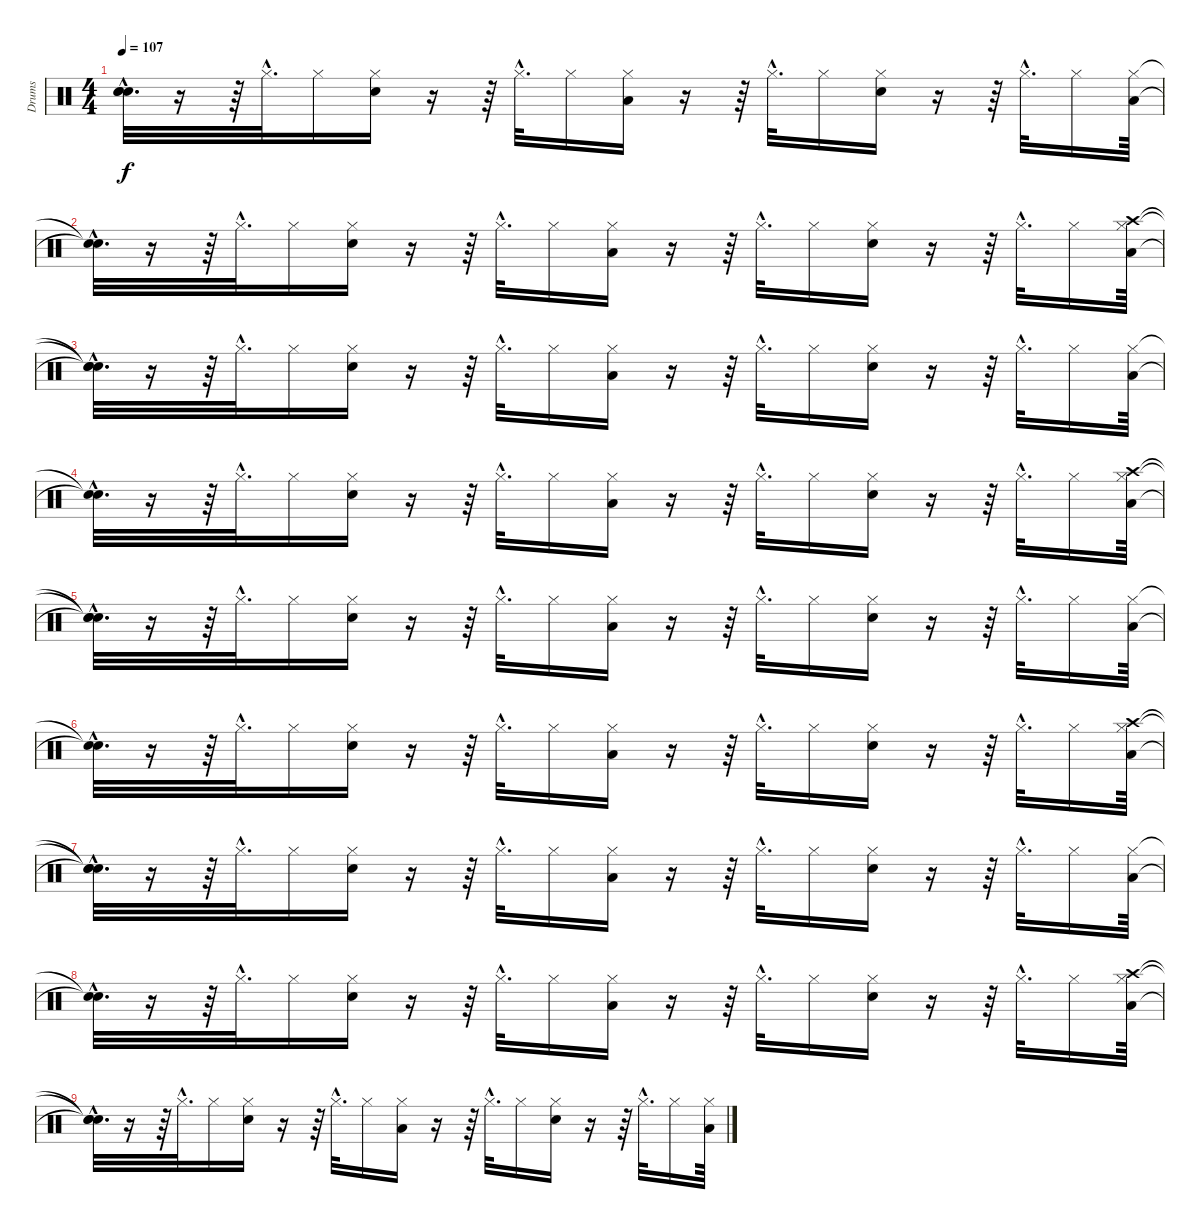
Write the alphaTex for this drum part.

\track ("Drums" "Drums") {instrument percussion}
\staff {score}
\articulation defaults
\ts (4 4)
\tempo 107
\clef neutral
\ks c
("Snare (hit)"{hac t} "Snare (hit)"{hac t} "Snare (hit)"{hac t}).32{d dy f} r.16 r.64 "Hi-Hat (closed)"{hac}.32{d} "Hi-Hat (closed)".16 ("Hi-Hat (closed)" "Snare (hit) 2").16 r.16 r.64 "Hi-Hat (closed)"{hac}.32{d} "Hi-Hat (closed)".16 ("Hi-Hat (closed)" "Low Tom (hit)").16 r.16 r.64 "Hi-Hat (closed)"{hac}.32{d} "Hi-Hat (closed)".16 ("Hi-Hat (closed)" "Snare (hit) 2").16 r.16 r.64 "Hi-Hat (closed)"{hac}.32{d} "Hi-Hat (closed)".16 ("Hi-Hat (closed)" "Low Tom (hit)").64 |
("Snare (hit)"{hac t} "Snare (hit)"{hac t}).32{d} r.16 r.64 "Hi-Hat (closed)"{hac}.32{d} "Hi-Hat (closed)".16 ("Hi-Hat (closed)" "Snare (hit) 2").16 r.16 r.64 "Hi-Hat (closed)"{hac}.32{d} "Hi-Hat (closed)".16 ("Hi-Hat (closed)" "Low Tom (hit)").16 r.16 r.64 "Hi-Hat (closed)"{hac}.32{d} "Hi-Hat (closed)".16 ("Hi-Hat (closed)" "Snare (hit) 2").16 r.16 r.64 "Hi-Hat (closed)"{hac}.32{d} "Hi-Hat (closed)".16 ("Hi-Hat (closed)" "Crash high (hit)" "Low Tom (hit)").64 |
("Snare (hit)"{hac t} "Snare (hit)"{hac t} "Snare (hit)"{hac t}).32{d} r.16 r.64 "Hi-Hat (closed)"{hac}.32{d} "Hi-Hat (closed)".16 ("Hi-Hat (closed)" "Snare (hit) 2").16 r.16 r.64 "Hi-Hat (closed)"{hac}.32{d} "Hi-Hat (closed)".16 ("Hi-Hat (closed)" "Low Tom (hit)").16 r.16 r.64 "Hi-Hat (closed)"{hac}.32{d} "Hi-Hat (closed)".16 ("Hi-Hat (closed)" "Snare (hit) 2").16 r.16 r.64 "Hi-Hat (closed)"{hac}.32{d} "Hi-Hat (closed)".16 ("Hi-Hat (closed)" "Low Tom (hit)").64 |
("Snare (hit)"{hac t} "Snare (hit)"{hac t}).32{d} r.16 r.64 "Hi-Hat (closed)"{hac}.32{d} "Hi-Hat (closed)".16 ("Hi-Hat (closed)" "Snare (hit) 2").16 r.16 r.64 "Hi-Hat (closed)"{hac}.32{d} "Hi-Hat (closed)".16 ("Hi-Hat (closed)" "Low Tom (hit)").16 r.16 r.64 "Hi-Hat (closed)"{hac}.32{d} "Hi-Hat (closed)".16 ("Hi-Hat (closed)" "Snare (hit) 2").16 r.16 r.64 "Hi-Hat (closed)"{hac}.32{d} "Hi-Hat (closed)".16 ("Hi-Hat (closed)" "Crash high (hit)" "Low Tom (hit)").64 |
("Snare (hit)"{hac t} "Snare (hit)"{hac t} "Snare (hit)"{hac t}).32{d} r.16 r.64 "Hi-Hat (closed)"{hac}.32{d} "Hi-Hat (closed)".16 ("Hi-Hat (closed)" "Snare (hit) 2").16 r.16 r.64 "Hi-Hat (closed)"{hac}.32{d} "Hi-Hat (closed)".16 ("Hi-Hat (closed)" "Low Tom (hit)").16 r.16 r.64 "Hi-Hat (closed)"{hac}.32{d} "Hi-Hat (closed)".16 ("Hi-Hat (closed)" "Snare (hit) 2").16 r.16 r.64 "Hi-Hat (closed)"{hac}.32{d} "Hi-Hat (closed)".16 ("Hi-Hat (closed)" "Low Tom (hit)").64 |
("Snare (hit)"{hac t} "Snare (hit)"{hac t}).32{d} r.16 r.64 "Hi-Hat (closed)"{hac}.32{d} "Hi-Hat (closed)".16 ("Hi-Hat (closed)" "Snare (hit) 2").16 r.16 r.64 "Hi-Hat (closed)"{hac}.32{d} "Hi-Hat (closed)".16 ("Hi-Hat (closed)" "Low Tom (hit)").16 r.16 r.64 "Hi-Hat (closed)"{hac}.32{d} "Hi-Hat (closed)".16 ("Hi-Hat (closed)" "Snare (hit) 2").16 r.16 r.64 "Hi-Hat (closed)"{hac}.32{d} "Hi-Hat (closed)".16 ("Hi-Hat (closed)" "Crash high (hit)" "Low Tom (hit)").64 |
("Snare (hit)"{hac t} "Snare (hit)"{hac t} "Snare (hit)"{hac t}).32{d} r.16 r.64 "Hi-Hat (closed)"{hac}.32{d} "Hi-Hat (closed)".16 ("Hi-Hat (closed)" "Snare (hit) 2").16 r.16 r.64 "Hi-Hat (closed)"{hac}.32{d} "Hi-Hat (closed)".16 ("Hi-Hat (closed)" "Low Tom (hit)").16 r.16 r.64 "Hi-Hat (closed)"{hac}.32{d} "Hi-Hat (closed)".16 ("Hi-Hat (closed)" "Snare (hit) 2").16 r.16 r.64 "Hi-Hat (closed)"{hac}.32{d} "Hi-Hat (closed)".16 ("Hi-Hat (closed)" "Low Tom (hit)").64 |
("Snare (hit)"{hac t} "Snare (hit)"{hac t}).32{d} r.16 r.64 "Hi-Hat (closed)"{hac}.32{d} "Hi-Hat (closed)".16 ("Hi-Hat (closed)" "Snare (hit) 2").16 r.16 r.64 "Hi-Hat (closed)"{hac}.32{d} "Hi-Hat (closed)".16 ("Hi-Hat (closed)" "Low Tom (hit)").16 r.16 r.64 "Hi-Hat (closed)"{hac}.32{d} "Hi-Hat (closed)".16 ("Hi-Hat (closed)" "Snare (hit) 2").16 r.16 r.64 "Hi-Hat (closed)"{hac}.32{d} "Hi-Hat (closed)".16 ("Hi-Hat (closed)" "Crash high (hit)" "Low Tom (hit)").64 |
("Snare (hit)"{hac t} "Snare (hit)"{hac t} "Snare (hit)"{hac t}).32{d} r.16 r.64 "Hi-Hat (closed)"{hac}.32{d} "Hi-Hat (closed)".16 ("Hi-Hat (closed)" "Snare (hit) 2").16 r.16 r.64 "Hi-Hat (closed)"{hac}.32{d} "Hi-Hat (closed)".16 ("Hi-Hat (closed)" "Low Tom (hit)").16 r.16 r.64 "Hi-Hat (closed)"{hac}.32{d} "Hi-Hat (closed)".16 ("Hi-Hat (closed)" "Snare (hit) 2").16 r.16 r.64 "Hi-Hat (closed)"{hac}.32{d} "Hi-Hat (closed)".16 ("Hi-Hat (closed)" "Low Tom (hit)").64
